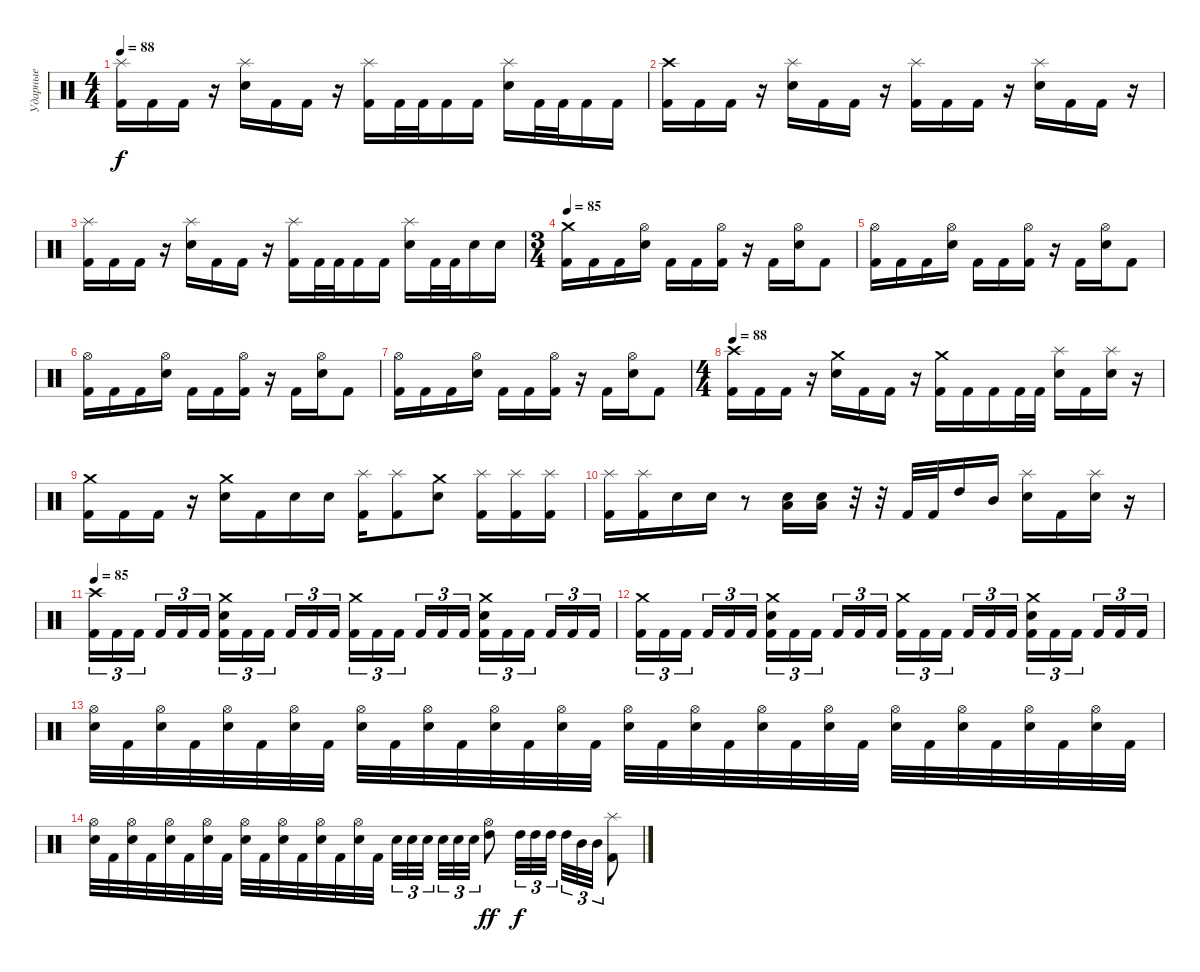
\track ("Ударные" "Ударные") {instrument percussion}
\staff {score}
\articulation defaults
\ts (4 4)
\tempo 88
\clef neutral
\ks c
("Kick (hit) 2" "Splash (hit)").16{dy f} "Kick (hit) 2".16 "Kick (hit) 2".16 r.16 ("Electric Snare (hit)" "Splash (hit)").16 "Kick (hit) 2".16 "Kick (hit) 2".16 r.16 ("Kick (hit) 2" "Splash (hit)").16 "Kick (hit) 2".32 "Kick (hit) 2".32 "Kick (hit) 2".16 "Kick (hit) 2".16 ("Electric Snare (hit)" "Splash (hit)").16 "Kick (hit) 2".32 "Kick (hit) 2".32 "Kick (hit) 2".16 "Kick (hit) 2".16 |
("Kick (hit) 2" "Crash high (hit)").16 "Kick (hit) 2".16 "Kick (hit) 2".16 r.16 ("Electric Snare (hit)" "Splash (hit)").16 "Kick (hit) 2".16 "Kick (hit) 2".16 r.16 ("Kick (hit) 2" "Splash (hit)").16 "Kick (hit) 2".16 "Kick (hit) 2".16 r.16 ("Electric Snare (hit)" "Splash (hit)").16 "Kick (hit) 2".16 "Kick (hit) 2".16 r.16 |
("Kick (hit) 2" "Splash (hit)").16 "Kick (hit) 2".16 "Kick (hit) 2".16 r.16 ("Electric Snare (hit)" "Splash (hit)").16 "Kick (hit) 2".16 "Kick (hit) 2".16 r.16 ("Kick (hit) 2" "Splash (hit)").16 "Kick (hit) 2".32 "Kick (hit) 2".32 "Kick (hit) 2".16 "Kick (hit) 2".16 ("Electric Snare (hit)" "Splash (hit)").16 "Kick (hit) 2".32 "Kick (hit) 2".32 "Electric Snare (hit)".16 "Electric Snare (hit)".16 |
\ts (3 4)
\tempo 85
("Crash medium (hit)" "Kick (hit) 2").16 "Kick (hit) 2".16 "Kick (hit) 2".16 ("Hi-Hat (open)" "Electric Snare (hit)").16 "Kick (hit) 2".16 "Kick (hit) 2".16 ("Hi-Hat (open)" "Kick (hit) 2").16 r.16 "Kick (hit) 2".16 ("Hi-Hat (open)" "Electric Snare (hit)").16 "Kick (hit) 2".8 |
("Hi-Hat (open)" "Kick (hit) 2").16 "Kick (hit) 2".16 "Kick (hit) 2".16 ("Hi-Hat (open)" "Electric Snare (hit)").16 "Kick (hit) 2".16 "Kick (hit) 2".16 ("Hi-Hat (open)" "Kick (hit) 2").16 r.16 "Kick (hit) 2".16 ("Hi-Hat (open)" "Electric Snare (hit)").16 "Kick (hit) 2".8 |
("Hi-Hat (open)" "Kick (hit) 2").16 "Kick (hit) 2".16 "Kick (hit) 2".16 ("Hi-Hat (open)" "Electric Snare (hit)").16 "Kick (hit) 2".16 "Kick (hit) 2".16 ("Hi-Hat (open)" "Kick (hit) 2").16 r.16 "Kick (hit) 2".16 ("Hi-Hat (open)" "Electric Snare (hit)").16 "Kick (hit) 2".8 |
("Hi-Hat (open)" "Kick (hit) 2").16 "Kick (hit) 2".16 "Kick (hit) 2".16 ("Hi-Hat (open)" "Electric Snare (hit)").16 "Kick (hit) 2".16 "Kick (hit) 2".16 ("Hi-Hat (open)" "Kick (hit) 2").16 r.16 "Kick (hit) 2".16 ("Hi-Hat (open)" "Electric Snare (hit)").16 "Kick (hit) 2".8 |
\ts (4 4)
\tempo 88
("Kick (hit) 2" "Crash high (hit)").16 "Kick (hit) 2".16 "Kick (hit) 2".16 r.16 ("Electric Snare (hit)" "Crash medium (hit)").16 "Kick (hit) 2".16 "Kick (hit) 2".16 r.16 ("Kick (hit) 2" "Crash medium (hit)").16 "Kick (hit) 2".16 "Kick (hit) 2".16 "Kick (hit) 2".32 "Kick (hit) 2".32 ("Splash (hit)" "Electric Snare (hit)").16 "Kick (hit) 2".16 ("Splash (hit)" "Electric Snare (hit)").16 r.16 |
("Kick (hit) 2" "Crash medium (hit)").16 "Kick (hit) 2".16 "Kick (hit) 2".16 r.16 ("Electric Snare (hit)" "Crash medium (hit)").16 "Kick (hit) 2".16 "Electric Snare (hit)".16 "Electric Snare (hit)".16 ("Kick (hit) 2" "Splash (hit)").16 ("Kick (hit) 2" "Splash (hit)").8 ("Electric Snare (hit)" "Crash medium (hit)").8 ("Kick (hit) 2" "Splash (hit)").16 ("Kick (hit) 2" "Splash (hit)").16 ("Kick (hit) 2" "Splash (hit)").16 |
("Kick (hit) 2" "Splash (hit)").16 ("Kick (hit) 2" "Splash (hit)").16 "Electric Snare (hit)".16 "Electric Snare (hit)".16 r.8 ("Electric Snare (hit)" "Low Tom (hit)").16 ("Electric Snare (hit)" "Low Tom (hit)").16 r.32 r.32 "Kick (hit) 2".32 "Kick (hit) 2".32 "High Tom (hit)".16 "Mid Tom (hit)".16 ("Splash (hit)" "Electric Snare (hit)").16 "Kick (hit) 2".16 ("Splash (hit)" "Electric Snare (hit)").16 r.16 |
\tempo 85
("Crash high (hit)" "Kick (hit) 2").16{tu (3 2)} "Kick (hit) 2".16{tu (3 2)} "Kick (hit) 2".16{tu (3 2) beam splitsecondary} "Kick (hit) 2".16{tu (3 2)} "Kick (hit) 2".16{tu (3 2)} "Kick (hit) 2".16{tu (3 2)} ("Crash medium (hit)" "Electric Snare (hit)" "Kick (hit) 2").16{tu (3 2)} "Kick (hit) 2".16{tu (3 2)} "Kick (hit) 2".16{tu (3 2) beam splitsecondary} "Kick (hit) 2".16{tu (3 2)} "Kick (hit) 2".16{tu (3 2)} "Kick (hit) 2".16{tu (3 2)} ("Crash medium (hit)" "Kick (hit) 2").16{tu (3 2)} "Kick (hit) 2".16{tu (3 2)} "Kick (hit) 2".16{tu (3 2) beam splitsecondary} "Kick (hit) 2".16{tu (3 2)} "Kick (hit) 2".16{tu (3 2)} "Kick (hit) 2".16{tu (3 2)} ("Crash medium (hit)" "Electric Snare (hit)" "Kick (hit) 2").16{tu (3 2)} "Kick (hit) 2".16{tu (3 2)} "Kick (hit) 2".16{tu (3 2) beam splitsecondary} "Kick (hit) 2".16{tu (3 2)} "Kick (hit) 2".16{tu (3 2)} "Kick (hit) 2".16{tu (3 2)} |
("Crash medium (hit)" "Kick (hit) 2").16{tu (3 2)} "Kick (hit) 2".16{tu (3 2)} "Kick (hit) 2".16{tu (3 2) beam splitsecondary} "Kick (hit) 2".16{tu (3 2)} "Kick (hit) 2".16{tu (3 2)} "Kick (hit) 2".16{tu (3 2)} ("Crash medium (hit)" "Electric Snare (hit)" "Kick (hit) 2").16{tu (3 2)} "Kick (hit) 2".16{tu (3 2)} "Kick (hit) 2".16{tu (3 2) beam splitsecondary} "Kick (hit) 2".16{tu (3 2)} "Kick (hit) 2".16{tu (3 2)} "Kick (hit) 2".16{tu (3 2)} ("Crash medium (hit)" "Kick (hit) 2").16{tu (3 2)} "Kick (hit) 2".16{tu (3 2)} "Kick (hit) 2".16{tu (3 2) beam splitsecondary} "Kick (hit) 2".16{tu (3 2)} "Kick (hit) 2".16{tu (3 2)} "Kick (hit) 2".16{tu (3 2)} ("Crash medium (hit)" "Electric Snare (hit)" "Kick (hit) 2").16{tu (3 2)} "Kick (hit) 2".16{tu (3 2)} "Kick (hit) 2".16{tu (3 2) beam splitsecondary} "Kick (hit) 2".16{tu (3 2)} "Kick (hit) 2".16{tu (3 2)} "Kick (hit) 2".16{tu (3 2)} |
("Hi-Hat (open)" "Electric Snare (hit)").32 "Kick (hit) 2".32 ("Hi-Hat (open)" "Electric Snare (hit)").32 "Kick (hit) 2".32 ("Hi-Hat (open)" "Electric Snare (hit)").32 "Kick (hit) 2".32 ("Hi-Hat (open)" "Electric Snare (hit)").32 "Kick (hit) 2".32 ("Hi-Hat (open)" "Electric Snare (hit)").32 "Kick (hit) 2".32 ("Hi-Hat (open)" "Electric Snare (hit)").32 "Kick (hit) 2".32 ("Hi-Hat (open)" "Electric Snare (hit)").32 "Kick (hit) 2".32 ("Hi-Hat (open)" "Electric Snare (hit)").32 "Kick (hit) 2".32 ("Hi-Hat (open)" "Electric Snare (hit)").32 "Kick (hit) 2".32 ("Hi-Hat (open)" "Electric Snare (hit)").32 "Kick (hit) 2".32 ("Hi-Hat (open)" "Electric Snare (hit)").32 "Kick (hit) 2".32 ("Hi-Hat (open)" "Electric Snare (hit)").32 "Kick (hit) 2".32 ("Hi-Hat (open)" "Electric Snare (hit)").32 "Kick (hit) 2".32 ("Hi-Hat (open)" "Electric Snare (hit)").32 "Kick (hit) 2".32 ("Hi-Hat (open)" "Electric Snare (hit)").32 "Kick (hit) 2".32 ("Hi-Hat (open)" "Electric Snare (hit)").32 "Kick (hit) 2".32 |
("Hi-Hat (open)" "Electric Snare (hit)").32 "Kick (hit) 2".32 ("Hi-Hat (open)" "Electric Snare (hit)").32 "Kick (hit) 2".32 ("Hi-Hat (open)" "Electric Snare (hit)").32 "Kick (hit) 2".32 ("Hi-Hat (open)" "Electric Snare (hit)").32 "Kick (hit) 2".32 ("Hi-Hat (open)" "Electric Snare (hit)").32 "Kick (hit) 2".32 ("Hi-Hat (open)" "Electric Snare (hit)").32 "Kick (hit) 2".32 ("Hi-Hat (open)" "Electric Snare (hit)").32 "Kick (hit) 2".32 ("Hi-Hat (open)" "Electric Snare (hit)").32 "Kick (hit) 2".32 "Electric Snare (hit)".32{tu (3 2)} "Electric Snare (hit)".32{tu (3 2)} "Electric Snare (hit)".32{tu (3 2) beam splitsecondary} "Electric Snare (hit)".32{tu (3 2)} "Electric Snare (hit)".32{tu (3 2)} "Electric Snare (hit)".32{tu (3 2)} ("Hi-Hat (open)" "High Tom (hit)").8{dy ff} "High Tom (hit)".32{tu (3 2) dy f} "High Tom (hit)".32{tu (3 2)} "High Tom (hit)".32{tu (3 2) beam splitsecondary} "High Tom (hit)".32{tu (3 2)} "Mid Tom (hit)".32{tu (3 2)} "Mid Tom (hit)".32{tu (3 2)} ("Kick (hit) 2" "Splash (hit)").8
